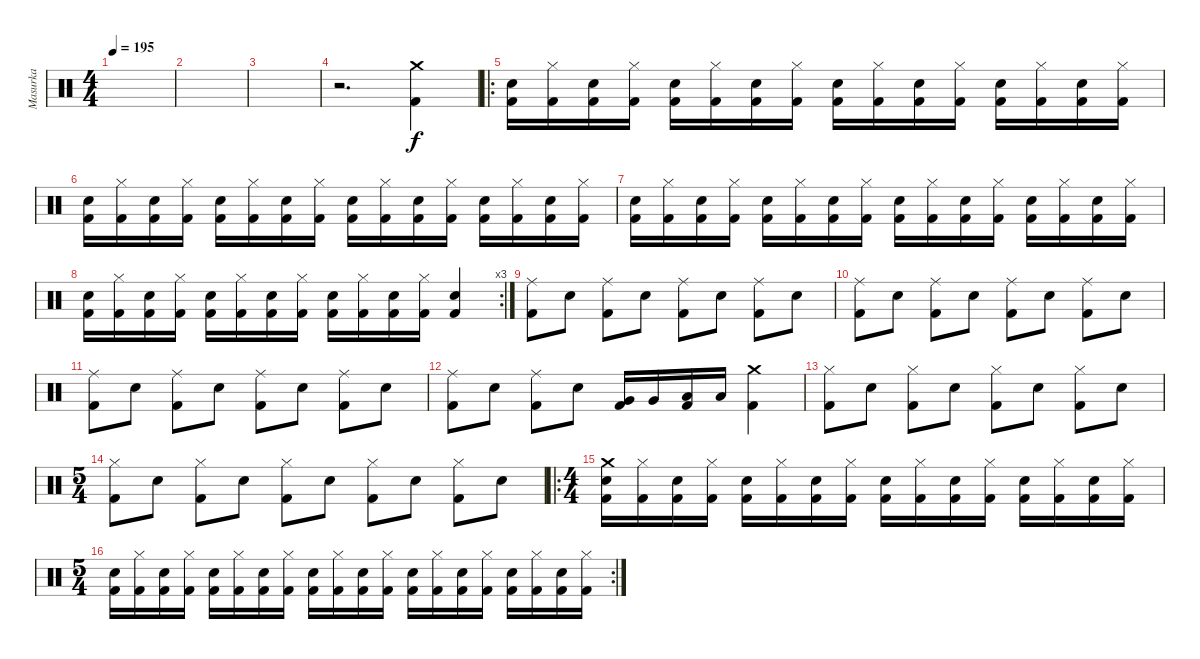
\track ("Masurka" "Masurka") {instrument percussion}
\staff {score}
\articulation defaults
\ts (4 4)
\tempo 195
\clef neutral
\ks c
|
|
|
r.2{d} ("Crash medium (hit)" "Kick (hit) 2").4 |
\ro
("Kick (hit) 2" "Snare (hit) 2").16 ("Hi-Hat (closed)" "Kick (hit) 2").16 ("Kick (hit) 2" "Snare (hit) 2").16 ("Hi-Hat (closed)" "Kick (hit) 2").16 ("Kick (hit) 2" "Snare (hit) 2").16 ("Hi-Hat (closed)" "Kick (hit) 2").16 ("Kick (hit) 2" "Snare (hit) 2").16 ("Hi-Hat (closed)" "Kick (hit) 2").16 ("Kick (hit) 2" "Snare (hit) 2").16 ("Hi-Hat (closed)" "Kick (hit) 2").16 ("Kick (hit) 2" "Snare (hit) 2").16 ("Hi-Hat (closed)" "Kick (hit) 2").16 ("Kick (hit) 2" "Snare (hit) 2").16 ("Hi-Hat (closed)" "Kick (hit) 2").16 ("Kick (hit) 2" "Snare (hit) 2").16 ("Hi-Hat (closed)" "Kick (hit) 2").16 |
("Kick (hit) 2" "Snare (hit) 2").16 ("Hi-Hat (closed)" "Kick (hit) 2").16 ("Kick (hit) 2" "Snare (hit) 2").16 ("Hi-Hat (closed)" "Kick (hit) 2").16 ("Kick (hit) 2" "Snare (hit) 2").16 ("Hi-Hat (closed)" "Kick (hit) 2").16 ("Kick (hit) 2" "Snare (hit) 2").16 ("Hi-Hat (closed)" "Kick (hit) 2").16 ("Kick (hit) 2" "Snare (hit) 2").16 ("Hi-Hat (closed)" "Kick (hit) 2").16 ("Kick (hit) 2" "Snare (hit) 2").16 ("Hi-Hat (closed)" "Kick (hit) 2").16 ("Kick (hit) 2" "Snare (hit) 2").16 ("Hi-Hat (closed)" "Kick (hit) 2").16 ("Kick (hit) 2" "Snare (hit) 2").16 ("Hi-Hat (closed)" "Kick (hit) 2").16 |
("Kick (hit) 2" "Snare (hit) 2").16 ("Hi-Hat (closed)" "Kick (hit) 2").16 ("Kick (hit) 2" "Snare (hit) 2").16 ("Hi-Hat (closed)" "Kick (hit) 2").16 ("Kick (hit) 2" "Snare (hit) 2").16 ("Hi-Hat (closed)" "Kick (hit) 2").16 ("Kick (hit) 2" "Snare (hit) 2").16 ("Hi-Hat (closed)" "Kick (hit) 2").16 ("Kick (hit) 2" "Snare (hit) 2").16 ("Hi-Hat (closed)" "Kick (hit) 2").16 ("Kick (hit) 2" "Snare (hit) 2").16 ("Hi-Hat (closed)" "Kick (hit) 2").16 ("Kick (hit) 2" "Snare (hit) 2").16 ("Hi-Hat (closed)" "Kick (hit) 2").16 ("Kick (hit) 2" "Snare (hit) 2").16 ("Hi-Hat (closed)" "Kick (hit) 2").16 |
\rc 3
("Kick (hit) 2" "Snare (hit) 2").16 ("Hi-Hat (closed)" "Kick (hit) 2").16 ("Kick (hit) 2" "Snare (hit) 2").16 ("Hi-Hat (closed)" "Kick (hit) 2").16 ("Kick (hit) 2" "Snare (hit) 2").16 ("Hi-Hat (closed)" "Kick (hit) 2").16 ("Kick (hit) 2" "Snare (hit) 2").16 ("Hi-Hat (closed)" "Kick (hit) 2").16 ("Kick (hit) 2" "Snare (hit) 2").16 ("Hi-Hat (closed)" "Kick (hit) 2").16 ("Kick (hit) 2" "Snare (hit) 2").16 ("Hi-Hat (closed)" "Kick (hit) 2").16 ("Kick (hit) 2" "Snare (hit) 2").4 |
("Ride (middle)" "Kick (hit) 2").8 "Snare (hit) 2".8 ("Ride (middle)" "Kick (hit) 2").8 "Snare (hit) 2".8 ("Ride (middle)" "Kick (hit) 2").8 "Snare (hit) 2".8 ("Ride (middle)" "Kick (hit) 2").8 "Snare (hit) 2".8 |
("Ride (middle)" "Kick (hit) 2").8 "Snare (hit) 2".8 ("Ride (middle)" "Kick (hit) 2").8 "Snare (hit) 2".8 ("Ride (middle)" "Kick (hit) 2").8 "Snare (hit) 2".8 ("Ride (middle)" "Kick (hit) 2").8 "Snare (hit) 2".8 |
("Ride (middle)" "Kick (hit) 2").8 "Snare (hit) 2".8 ("Ride (middle)" "Kick (hit) 2").8 "Snare (hit) 2".8 ("Ride (middle)" "Kick (hit) 2").8 "Snare (hit) 2".8 ("Ride (middle)" "Kick (hit) 2").8 "Snare (hit) 2".8 |
("Ride (middle)" "Kick (hit) 2").8 "Snare (hit) 2".8 ("Ride (middle)" "Kick (hit) 2").8 "Snare (hit) 2".8 ("Kick (hit) 2" "Very Low Tom (hit)").16 "Very Low Tom (hit)".16 ("Kick (hit) 2" "Low Floor Tom (hit)").16 "Low Floor Tom (hit)".16 ("Crash medium (hit)" "Kick (hit) 2").4 |
("Hi-Hat (closed)" "Kick (hit) 2").8 "Snare (hit) 2".8 ("Hi-Hat (closed)" "Kick (hit) 2").8 "Snare (hit) 2".8 ("Hi-Hat (closed)" "Kick (hit) 2").8 "Snare (hit) 2".8 ("Hi-Hat (closed)" "Kick (hit) 2").8 "Snare (hit) 2".8 |
\ts (5 4)
("Hi-Hat (closed)" "Kick (hit) 2").8 "Snare (hit) 2".8 ("Hi-Hat (closed)" "Kick (hit) 2").8 "Snare (hit) 2".8 ("Hi-Hat (closed)" "Kick (hit) 2").8 "Snare (hit) 2".8 ("Hi-Hat (closed)" "Kick (hit) 2").8 "Snare (hit) 2".8 ("Hi-Hat (closed)" "Kick (hit) 2").8 "Snare (hit) 2".8 |
\ro
\ts (4 4)
("Crash medium (hit)" "Kick (hit) 2" "Snare (hit) 2").16 ("Hi-Hat (closed)" "Kick (hit) 2").16 ("Kick (hit) 2" "Snare (hit) 2").16 ("Hi-Hat (closed)" "Kick (hit) 2").16 ("Kick (hit) 2" "Snare (hit) 2").16 ("Hi-Hat (closed)" "Kick (hit) 2").16 ("Kick (hit) 2" "Snare (hit) 2").16 ("Hi-Hat (closed)" "Kick (hit) 2").16 ("Kick (hit) 2" "Snare (hit) 2").16 ("Hi-Hat (closed)" "Kick (hit) 2").16 ("Kick (hit) 2" "Snare (hit) 2").16 ("Hi-Hat (closed)" "Kick (hit) 2").16 ("Kick (hit) 2" "Snare (hit) 2").16 ("Hi-Hat (closed)" "Kick (hit) 2").16 ("Kick (hit) 2" "Snare (hit) 2").16 ("Hi-Hat (closed)" "Kick (hit) 2").16 |
\rc 2
\ts (5 4)
("Kick (hit) 2" "Snare (hit) 2").16 ("Hi-Hat (closed)" "Kick (hit) 2").16 ("Kick (hit) 2" "Snare (hit) 2").16 ("Hi-Hat (closed)" "Kick (hit) 2").16 ("Kick (hit) 2" "Snare (hit) 2").16 ("Hi-Hat (closed)" "Kick (hit) 2").16 ("Kick (hit) 2" "Snare (hit) 2").16 ("Hi-Hat (closed)" "Kick (hit) 2").16 ("Kick (hit) 2" "Snare (hit) 2").16 ("Hi-Hat (closed)" "Kick (hit) 2").16 ("Kick (hit) 2" "Snare (hit) 2").16 ("Hi-Hat (closed)" "Kick (hit) 2").16 ("Kick (hit) 2" "Snare (hit) 2").16 ("Hi-Hat (closed)" "Kick (hit) 2").16 ("Kick (hit) 2" "Snare (hit) 2").16 ("Hi-Hat (closed)" "Kick (hit) 2").16 ("Kick (hit) 2" "Snare (hit) 2").16 ("Hi-Hat (closed)" "Kick (hit) 2").16 ("Kick (hit) 2" "Snare (hit) 2").16 ("Hi-Hat (closed)" "Kick (hit) 2").16
